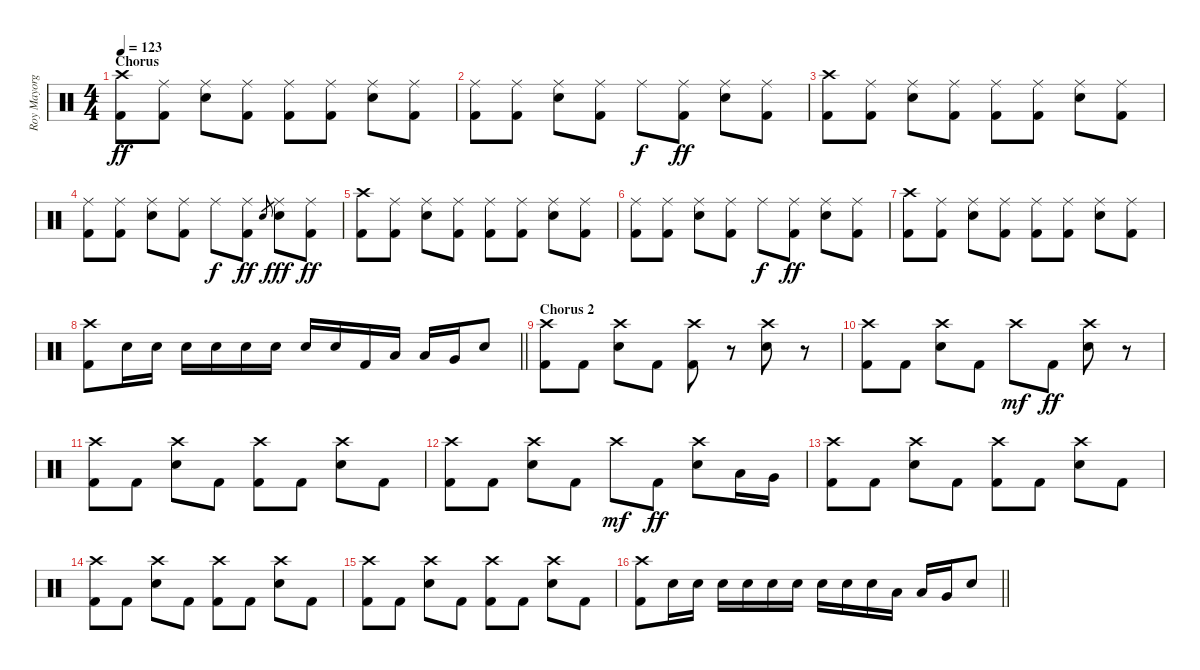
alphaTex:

\track ("Roy Mayorga (Drums)" "Roy Mayorg") {instrument percussion}
\staff {score}
\articulation defaults
\ts (4 4)
\section ("" "Chorus")
\tempo 123
\clef neutral
\ks c
("Crash high (hit)" "Kick (hit) 2").8{dy ff} ("Ride (middle)" "Kick (hit) 2").8 ("Ride (middle)" "Electric Snare (hit)").8 ("Ride (middle)" "Kick (hit) 2").8 ("Ride (middle)" "Kick (hit) 2").8 ("Ride (middle)" "Kick (hit) 2").8 ("Ride (middle)" "Electric Snare (hit)").8 ("Ride (middle)" "Kick (hit) 2").8 |
("Ride (middle)" "Kick (hit) 2").8 ("Ride (middle)" "Kick (hit) 2").8 ("Ride (middle)" "Electric Snare (hit)").8 ("Ride (middle)" "Kick (hit) 2").8 "Ride (middle)".8{dy f} ("Ride (middle)" "Kick (hit) 2").8{dy ff} ("Ride (middle)" "Electric Snare (hit)").8 ("Ride (middle)" "Kick (hit) 2").8 |
("Crash high (hit)" "Kick (hit) 2").8 ("Ride (middle)" "Kick (hit) 2").8 ("Ride (middle)" "Electric Snare (hit)").8 ("Ride (middle)" "Kick (hit) 2").8 ("Ride (middle)" "Kick (hit) 2").8 ("Ride (middle)" "Kick (hit) 2").8 ("Ride (middle)" "Electric Snare (hit)").8 ("Ride (middle)" "Kick (hit) 2").8 |
("Ride (middle)" "Kick (hit) 2").8 ("Ride (middle)" "Kick (hit) 2").8 ("Ride (middle)" "Electric Snare (hit)").8 ("Ride (middle)" "Kick (hit) 2").8 "Ride (middle)".8{dy f} ("Ride (middle)" "Kick (hit) 2").8{dy ff} "Electric Snare (hit)".8{gr} ("Ride (middle)" "Electric Snare (hit)").8{dy fff} ("Ride (middle)" "Kick (hit) 2").8{dy ff} |
("Crash high (hit)" "Kick (hit) 2").8 ("Ride (middle)" "Kick (hit) 2").8 ("Ride (middle)" "Electric Snare (hit)").8 ("Ride (middle)" "Kick (hit) 2").8 ("Ride (middle)" "Kick (hit) 2").8 ("Ride (middle)" "Kick (hit) 2").8 ("Ride (middle)" "Electric Snare (hit)").8 ("Ride (middle)" "Kick (hit) 2").8 |
("Ride (middle)" "Kick (hit) 2").8 ("Ride (middle)" "Kick (hit) 2").8 ("Ride (middle)" "Electric Snare (hit)").8 ("Ride (middle)" "Kick (hit) 2").8 "Ride (middle)".8{dy f} ("Ride (middle)" "Kick (hit) 2").8{dy ff} ("Ride (middle)" "Electric Snare (hit)").8 ("Ride (middle)" "Kick (hit) 2").8 |
("Crash high (hit)" "Kick (hit) 2").8 ("Ride (middle)" "Kick (hit) 2").8 ("Ride (middle)" "Electric Snare (hit)").8 ("Ride (middle)" "Kick (hit) 2").8 ("Ride (middle)" "Kick (hit) 2").8 ("Ride (middle)" "Kick (hit) 2").8 ("Ride (middle)" "Electric Snare (hit)").8 ("Ride (middle)" "Kick (hit) 2").8 |
\barLineRight lightlight
("Crash high (hit)" "Kick (hit) 2").8 "Electric Snare (hit)".16 "Electric Snare (hit)".16 "Electric Snare (hit)".16 "Electric Snare (hit)".16 "Electric Snare (hit)".16 "Electric Snare (hit)".16 "Electric Snare (hit)".16 "Electric Snare (hit)".16 "Kick (hit) 2".16 "Low Tom (hit)".16 "Low Tom (hit)".16 "Very Low Tom (hit)".16 "Electric Snare (hit)".8 |
\section ("" "Chorus 2")
("Crash high (hit)" "Kick (hit) 2").8 "Kick (hit) 2".8 ("Crash high (hit)" "Electric Snare (hit)").8 "Kick (hit) 2".8 ("Crash high (hit)" "Kick (hit) 2").8 r.8 ("Crash high (hit)" "Electric Snare (hit)").8 r.8 |
("Crash high (hit)" "Kick (hit) 2").8 "Kick (hit) 2".8 ("Crash high (hit)" "Electric Snare (hit)").8 "Kick (hit) 2".8 "Crash high (hit)".8{dy mf} "Kick (hit) 2".8{dy ff} ("Crash high (hit)" "Electric Snare (hit)").8 r.8 |
("Crash high (hit)" "Kick (hit) 2").8 "Kick (hit) 2".8 ("Crash high (hit)" "Electric Snare (hit)").8 "Kick (hit) 2".8 ("Crash high (hit)" "Kick (hit) 2").8 "Kick (hit) 2".8 ("Crash high (hit)" "Electric Snare (hit)").8 "Kick (hit) 2".8 |
("Crash high (hit)" "Kick (hit) 2").8 "Kick (hit) 2".8 ("Crash high (hit)" "Electric Snare (hit)").8 "Kick (hit) 2".8 "Crash high (hit)".8{dy mf} "Kick (hit) 2".8{dy ff} ("Crash high (hit)" "Electric Snare (hit)").8 "Low Tom (hit)".16 "Very Low Tom (hit)".16 |
("Crash high (hit)" "Kick (hit) 2").8 "Kick (hit) 2".8 ("Crash high (hit)" "Electric Snare (hit)").8 "Kick (hit) 2".8 ("Crash high (hit)" "Kick (hit) 2").8 "Kick (hit) 2".8 ("Crash high (hit)" "Electric Snare (hit)").8 "Kick (hit) 2".8 |
("Crash high (hit)" "Kick (hit) 2").8 "Kick (hit) 2".8 ("Crash high (hit)" "Electric Snare (hit)").8 "Kick (hit) 2".8 ("Crash high (hit)" "Kick (hit) 2").8 "Kick (hit) 2".8 ("Crash high (hit)" "Electric Snare (hit)").8 "Kick (hit) 2".8 |
("Crash high (hit)" "Kick (hit) 2").8 "Kick (hit) 2".8 ("Crash high (hit)" "Electric Snare (hit)").8 "Kick (hit) 2".8 ("Crash high (hit)" "Kick (hit) 2").8 "Kick (hit) 2".8 ("Crash high (hit)" "Electric Snare (hit)").8 "Kick (hit) 2".8 |
\barLineRight lightlight
("Crash high (hit)" "Kick (hit) 2").8 "Electric Snare (hit)".16 "Electric Snare (hit)".16 "Electric Snare (hit)".16 "Electric Snare (hit)".16 "Electric Snare (hit)".16 "Electric Snare (hit)".16 "Electric Snare (hit)".16 "Electric Snare (hit)".16 "Electric Snare (hit)".16 "Low Tom (hit)".16 "Low Tom (hit)".16 "Very Low Tom (hit)".16 "Electric Snare (hit)".8
